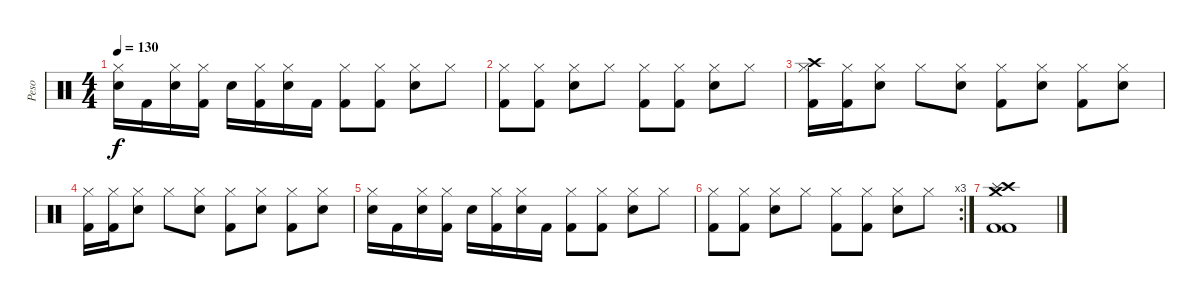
\track ("Peso" "Peso") {instrument percussion}
\staff {score}
\articulation defaults
\ts (4 4)
\tempo 130
\clef neutral
\ks c
("Hi-Hat (closed)" "Snare (hit) 2").16{dy f} "Kick (hit) 2".16 ("Hi-Hat (closed)" "Snare (hit) 2").16 ("Hi-Hat (closed)" "Kick (hit) 2").16 "Snare (hit) 2".16 ("Hi-Hat (closed)" "Kick (hit) 2").16 ("Hi-Hat (closed)" "Snare (hit) 2").16 "Kick (hit) 2".16 ("Hi-Hat (closed)" "Kick (hit) 2").8 ("Hi-Hat (closed)" "Kick (hit) 2").8 ("Hi-Hat (closed)" "Snare (hit) 2").8 "Hi-Hat (closed)".8 |
("Hi-Hat (closed)" "Kick (hit) 2").8 ("Hi-Hat (closed)" "Kick (hit) 2").8 ("Hi-Hat (closed)" "Snare (hit) 2").8 "Hi-Hat (closed)".8 ("Hi-Hat (closed)" "Kick (hit) 2").8 ("Hi-Hat (closed)" "Kick (hit) 2").8 ("Hi-Hat (closed)" "Snare (hit) 2").8 "Hi-Hat (closed)".8 |
("Crash high (hit)" "Hi-Hat (closed)" "Kick (hit) 2").16 ("Hi-Hat (closed)" "Kick (hit) 2").16 ("Hi-Hat (closed)" "Snare (hit) 2").8 "Hi-Hat (closed)".8 ("Hi-Hat (closed)" "Snare (hit) 2").8 ("Hi-Hat (closed)" "Kick (hit) 2").8 ("Hi-Hat (closed)" "Snare (hit) 2").8 ("Hi-Hat (closed)" "Kick (hit) 2").8 ("Hi-Hat (closed)" "Snare (hit) 2").8 |
("Hi-Hat (closed)" "Kick (hit) 2").16 ("Hi-Hat (closed)" "Kick (hit) 2").16 ("Hi-Hat (closed)" "Snare (hit) 2").8 "Hi-Hat (closed)".8 ("Hi-Hat (closed)" "Snare (hit) 2").8 ("Hi-Hat (closed)" "Kick (hit) 2").8 ("Hi-Hat (closed)" "Snare (hit) 2").8 ("Hi-Hat (closed)" "Kick (hit) 2").8 ("Hi-Hat (closed)" "Snare (hit) 2").8 |
("Hi-Hat (closed)" "Snare (hit) 2").16 "Kick (hit) 2".16 ("Hi-Hat (closed)" "Snare (hit) 2").16 ("Hi-Hat (closed)" "Kick (hit) 2").16 "Snare (hit) 2".16 ("Hi-Hat (closed)" "Kick (hit) 2").16 ("Hi-Hat (closed)" "Snare (hit) 2").16 "Kick (hit) 2".16 ("Hi-Hat (closed)" "Kick (hit) 2").8 ("Hi-Hat (closed)" "Kick (hit) 2").8 ("Hi-Hat (closed)" "Snare (hit) 2").8 "Hi-Hat (closed)".8 |
\rc 3
("Hi-Hat (closed)" "Kick (hit) 2").8 ("Hi-Hat (closed)" "Kick (hit) 2").8 ("Hi-Hat (closed)" "Snare (hit) 2").8 "Hi-Hat (closed)".8 ("Hi-Hat (closed)" "Kick (hit) 2").8 ("Hi-Hat (closed)" "Kick (hit) 2").8 ("Hi-Hat (closed)" "Snare (hit) 2").8 "Hi-Hat (closed)".8 |
("Crash medium (hit)" "Crash high (hit)" "Splash (hit)" "Kick (hit) 2" "Kick (hit) 2").1
